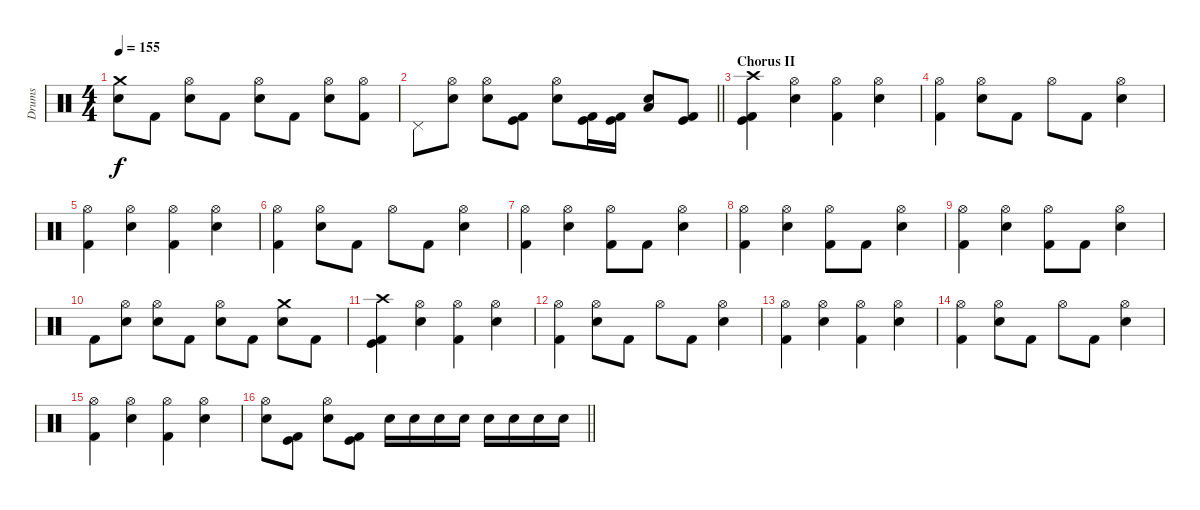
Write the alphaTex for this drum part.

\track ("Drums" "Drums") {instrument percussion}
\staff {score}
\articulation defaults
\ts (4 4)
\tempo 155
\clef neutral
\ks c
("Crash medium (hit)" "Electric Snare (hit)").8{dy f} "Kick (hit) 2".8 ("Hi-Hat (open)" "Electric Snare (hit)").8 "Kick (hit) 2".8 ("Hi-Hat (open)" "Electric Snare (hit)").8 "Kick (hit) 2".8 ("Hi-Hat (open)" "Electric Snare (hit)").8 ("Hi-Hat (open)" "Kick (hit) 2").8 |
\barLineRight lightlight "Pedal Hi-Hat (hit)".8
("Hi-Hat (open)" "Electric Snare (hit)").8 ("Hi-Hat (open)" "Electric Snare (hit)").8 ("Kick (hit) 2" "Kick (hit)").8 ("Hi-Hat (open)" "Electric Snare (hit)").8 ("Kick (hit) 2" "Kick (hit)").16 ("Kick (hit) 2" "Kick (hit)").16 ("Low Floor Tom (hit)" "Electric Snare (hit)").8 ("Kick (hit) 2" "Kick (hit)").8 |
\section ("" "Chorus II")
("Crash high (hit)" "Kick (hit) 2" "Kick (hit)").4 ("Hi-Hat (open)" "Electric Snare (hit)").4 ("Hi-Hat (open)" "Kick (hit) 2").4 ("Hi-Hat (open)" "Electric Snare (hit)").4 |
("Hi-Hat (open)" "Kick (hit) 2").4 ("Hi-Hat (open)" "Electric Snare (hit)").8 "Kick (hit) 2".8 "Hi-Hat (open)".8 "Kick (hit) 2".8 ("Hi-Hat (open)" "Electric Snare (hit)").4 |
("Hi-Hat (open)" "Kick (hit) 2").4 ("Hi-Hat (open)" "Electric Snare (hit)").4 ("Hi-Hat (open)" "Kick (hit) 2").4 ("Hi-Hat (open)" "Electric Snare (hit)").4 |
("Hi-Hat (open)" "Kick (hit) 2").4 ("Hi-Hat (open)" "Electric Snare (hit)").8 "Kick (hit) 2".8 "Hi-Hat (open)".8 "Kick (hit) 2".8 ("Hi-Hat (open)" "Electric Snare (hit)").4 |
("Hi-Hat (open)" "Kick (hit) 2").4 ("Hi-Hat (open)" "Electric Snare (hit)").4 ("Hi-Hat (open)" "Kick (hit) 2").8 "Kick (hit) 2".8 ("Hi-Hat (open)" "Electric Snare (hit)").4 |
("Hi-Hat (open)" "Kick (hit) 2").4 ("Hi-Hat (open)" "Electric Snare (hit)").4 ("Hi-Hat (open)" "Kick (hit) 2").8 "Kick (hit) 2".8 ("Hi-Hat (open)" "Electric Snare (hit)").4 |
("Hi-Hat (open)" "Kick (hit) 2").4 ("Hi-Hat (open)" "Electric Snare (hit)").4 ("Hi-Hat (open)" "Kick (hit) 2").8 "Kick (hit) 2".8 ("Hi-Hat (open)" "Electric Snare (hit)").4 |
"Kick (hit) 2".8 ("Hi-Hat (open)" "Electric Snare (hit)").8 ("Hi-Hat (open)" "Electric Snare (hit)").8 "Kick (hit) 2".8 ("Hi-Hat (open)" "Electric Snare (hit)").8 "Kick (hit) 2".8 ("Crash medium (hit)" "Electric Snare (hit)").8 "Kick (hit) 2".8 |
("Crash high (hit)" "Kick (hit) 2" "Kick (hit)").4 ("Hi-Hat (open)" "Electric Snare (hit)").4 ("Hi-Hat (open)" "Kick (hit) 2").4 ("Hi-Hat (open)" "Electric Snare (hit)").4 |
("Hi-Hat (open)" "Kick (hit) 2").4 ("Hi-Hat (open)" "Electric Snare (hit)").8 "Kick (hit) 2".8 "Hi-Hat (open)".8 "Kick (hit) 2".8 ("Hi-Hat (open)" "Electric Snare (hit)").4 |
("Hi-Hat (open)" "Kick (hit) 2").4 ("Hi-Hat (open)" "Electric Snare (hit)").4 ("Hi-Hat (open)" "Kick (hit) 2").4 ("Hi-Hat (open)" "Electric Snare (hit)").4 |
("Hi-Hat (open)" "Kick (hit) 2").4 ("Hi-Hat (open)" "Electric Snare (hit)").8 "Kick (hit) 2".8 "Hi-Hat (open)".8 "Kick (hit) 2".8 ("Hi-Hat (open)" "Electric Snare (hit)").4 |
("Hi-Hat (open)" "Kick (hit) 2").4 ("Hi-Hat (open)" "Electric Snare (hit)").4 ("Hi-Hat (open)" "Kick (hit) 2").4 ("Hi-Hat (open)" "Electric Snare (hit)").4 |
\barLineRight lightlight
("Hi-Hat (open)" "Electric Snare (hit)").8 ("Kick (hit) 2" "Kick (hit)").8 ("Hi-Hat (open)" "Electric Snare (hit)").8 ("Kick (hit) 2" "Kick (hit)").8 "Electric Snare (hit)".16 "Electric Snare (hit)".16 "Electric Snare (hit)".16 "Electric Snare (hit)".16 "Electric Snare (hit)".16 "Electric Snare (hit)".16 "Electric Snare (hit)".16 "Electric Snare (hit)".16
